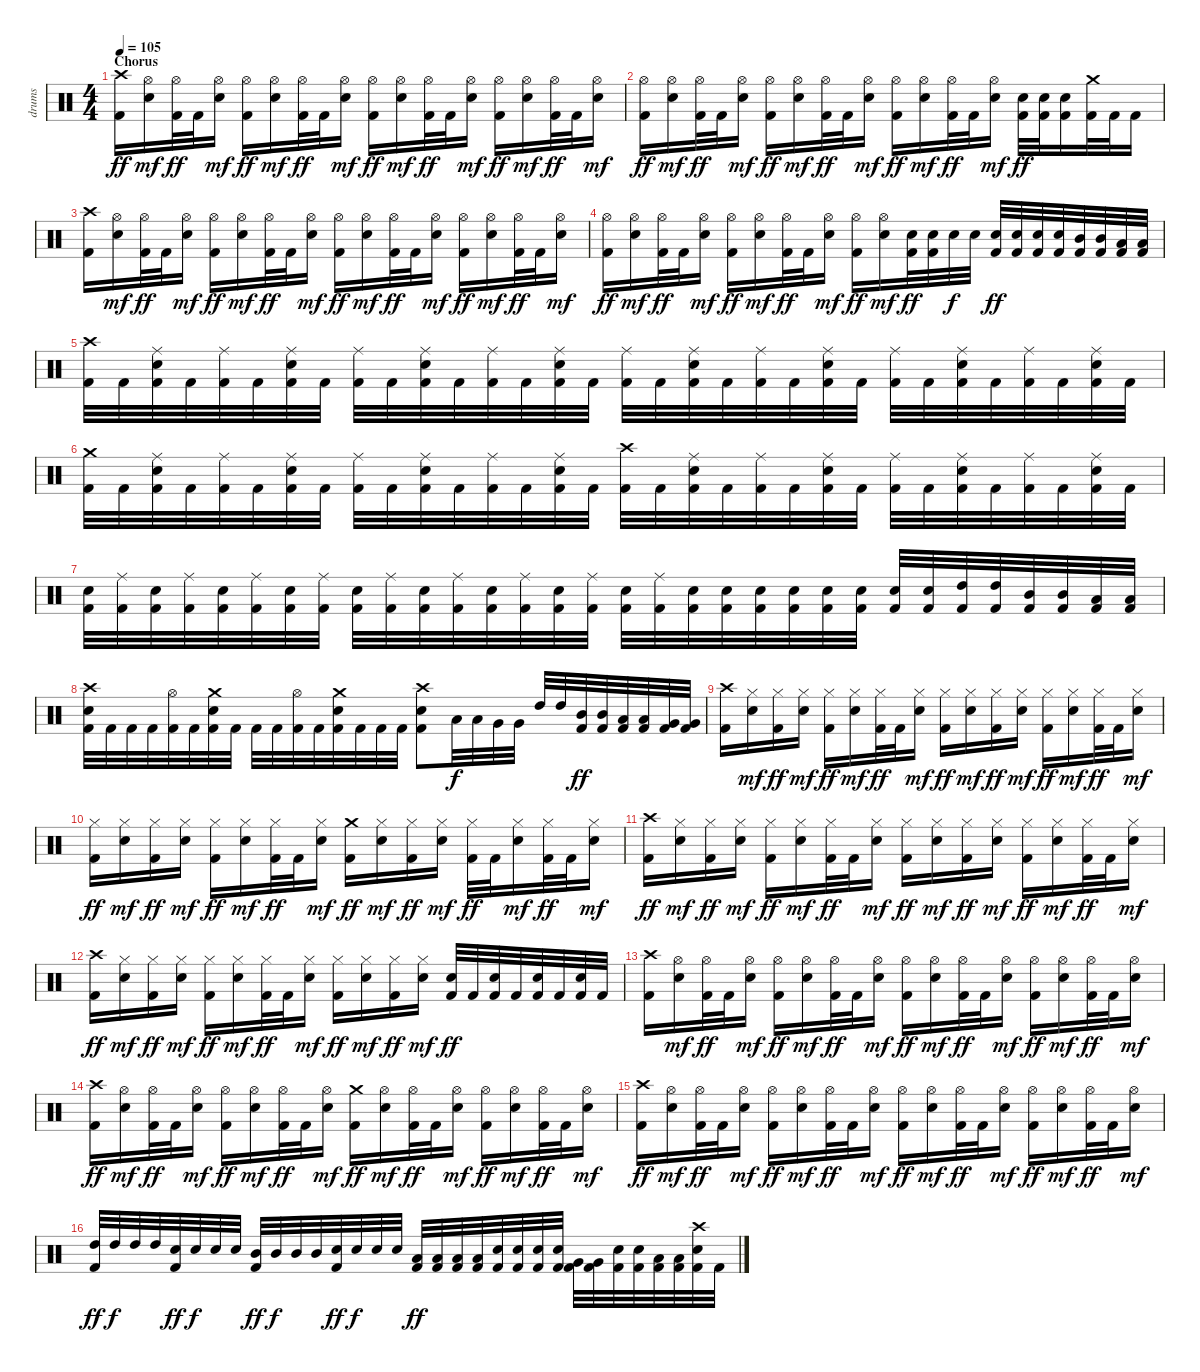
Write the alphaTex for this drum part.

\track ("drums" "drums") {instrument percussion}
\staff {score}
\articulation defaults
\ts (4 4)
\section ("" "Chorus")
\tempo 105
\clef neutral
\ks c
("Crash high (hit)" "Kick (hit) 2").16{dy ff} ("Hi-Hat (open)" "Snare (hit) 2").16{dy mf} ("Hi-Hat (open)" "Kick (hit) 2").32{dy ff} "Kick (hit) 2".32 ("Hi-Hat (open)" "Snare (hit) 2").16{dy mf} ("Hi-Hat (open)" "Kick (hit) 2").16{dy ff} ("Hi-Hat (open)" "Snare (hit) 2").16{dy mf} ("Hi-Hat (open)" "Kick (hit) 2").32{dy ff} "Kick (hit) 2".32 ("Hi-Hat (open)" "Snare (hit) 2").16{dy mf} ("Hi-Hat (open)" "Kick (hit) 2").16{dy ff} ("Hi-Hat (open)" "Snare (hit) 2").16{dy mf} ("Hi-Hat (open)" "Kick (hit) 2").32{dy ff} "Kick (hit) 2".32 ("Hi-Hat (open)" "Snare (hit) 2").16{dy mf} ("Hi-Hat (open)" "Kick (hit) 2").16{dy ff} ("Hi-Hat (open)" "Snare (hit) 2").16{dy mf} ("Hi-Hat (open)" "Kick (hit) 2").32{dy ff} "Kick (hit) 2".32 ("Hi-Hat (open)" "Snare (hit) 2").16{dy mf} |
("Hi-Hat (open)" "Kick (hit) 2").16{dy ff} ("Hi-Hat (open)" "Snare (hit) 2").16{dy mf} ("Hi-Hat (open)" "Kick (hit) 2").32{dy ff} "Kick (hit) 2".32 ("Hi-Hat (open)" "Snare (hit) 2").16{dy mf} ("Hi-Hat (open)" "Kick (hit) 2").16{dy ff} ("Hi-Hat (open)" "Snare (hit) 2").16{dy mf} ("Hi-Hat (open)" "Kick (hit) 2").32{dy ff} "Kick (hit) 2".32 ("Hi-Hat (open)" "Snare (hit) 2").16{dy mf} ("Hi-Hat (open)" "Kick (hit) 2").16{dy ff} ("Hi-Hat (open)" "Snare (hit) 2").16{dy mf} ("Hi-Hat (open)" "Kick (hit) 2").32{dy ff} "Kick (hit) 2".32 ("Hi-Hat (open)" "Snare (hit) 2").16{dy mf} ("Snare (hit) 2" "Kick (hit) 2").32{dy ff} ("Snare (hit) 2" "Kick (hit) 2").32 ("Snare (hit) 2" "Kick (hit) 2").16 ("Crash medium (hit)" "Kick (hit) 2").32 "Kick (hit) 2".32 "Kick (hit) 2".16 |
("Crash high (hit)" "Kick (hit) 2").16 ("Hi-Hat (open)" "Snare (hit) 2").16{dy mf} ("Hi-Hat (open)" "Kick (hit) 2").32{dy ff} "Kick (hit) 2".32 ("Hi-Hat (open)" "Snare (hit) 2").16{dy mf} ("Hi-Hat (open)" "Kick (hit) 2").16{dy ff} ("Hi-Hat (open)" "Snare (hit) 2").16{dy mf} ("Hi-Hat (open)" "Kick (hit) 2").32{dy ff} "Kick (hit) 2".32 ("Hi-Hat (open)" "Snare (hit) 2").16{dy mf} ("Hi-Hat (open)" "Kick (hit) 2").16{dy ff} ("Hi-Hat (open)" "Snare (hit) 2").16{dy mf} ("Hi-Hat (open)" "Kick (hit) 2").32{dy ff} "Kick (hit) 2".32 ("Hi-Hat (open)" "Snare (hit) 2").16{dy mf} ("Hi-Hat (open)" "Kick (hit) 2").16{dy ff} ("Hi-Hat (open)" "Snare (hit) 2").16{dy mf} ("Hi-Hat (open)" "Kick (hit) 2").32{dy ff} "Kick (hit) 2".32 ("Hi-Hat (open)" "Snare (hit) 2").16{dy mf} |
("Hi-Hat (open)" "Kick (hit) 2").16{dy ff} ("Hi-Hat (open)" "Snare (hit) 2").16{dy mf} ("Hi-Hat (open)" "Kick (hit) 2").32{dy ff} "Kick (hit) 2".32 ("Hi-Hat (open)" "Snare (hit) 2").16{dy mf} ("Hi-Hat (open)" "Kick (hit) 2").16{dy ff} ("Hi-Hat (open)" "Snare (hit) 2").16{dy mf} ("Hi-Hat (open)" "Kick (hit) 2").32{dy ff} "Kick (hit) 2".32 ("Hi-Hat (open)" "Snare (hit) 2").16{dy mf} ("Hi-Hat (open)" "Kick (hit) 2").16{dy ff} ("Hi-Hat (open)" "Snare (hit) 2").16{dy mf} ("Snare (hit) 2" "Kick (hit) 2").32{dy ff} ("Snare (hit) 2" "Kick (hit) 2").32 "Snare (hit) 2".32{dy f} "Snare (hit) 2".32 ("Snare (hit) 2" "Kick (hit) 2").32{dy ff} ("Snare (hit) 2" "Kick (hit) 2").32 ("Snare (hit) 2" "Kick (hit) 2").32 ("Snare (hit) 2" "Kick (hit) 2").32 ("Mid Tom (hit)" "Kick (hit) 2").32 ("Mid Tom (hit)" "Kick (hit) 2").32 ("Low Tom (hit)" "Kick (hit) 2").32 ("Low Tom (hit)" "Kick (hit) 2").32 |
("Crash high (hit)" "Kick (hit) 2").32 "Kick (hit) 2".32 ("Ride (middle)" "Snare (hit) 2" "Kick (hit) 2").32 "Kick (hit) 2".32 ("Ride (middle)" "Kick (hit) 2").32 "Kick (hit) 2".32 ("Ride (middle)" "Snare (hit) 2" "Kick (hit) 2").32 "Kick (hit) 2".32 ("Ride (middle)" "Kick (hit) 2").32 "Kick (hit) 2".32 ("Ride (middle)" "Snare (hit) 2" "Kick (hit) 2").32 "Kick (hit) 2".32 ("Ride (middle)" "Kick (hit) 2").32 "Kick (hit) 2".32 ("Ride (middle)" "Snare (hit) 2" "Kick (hit) 2").32 "Kick (hit) 2".32 ("Ride (middle)" "Kick (hit) 2").32 "Kick (hit) 2".32 ("Ride (middle)" "Snare (hit) 2" "Kick (hit) 2").32 "Kick (hit) 2".32 ("Ride (middle)" "Kick (hit) 2").32 "Kick (hit) 2".32 ("Ride (middle)" "Snare (hit) 2" "Kick (hit) 2").32 "Kick (hit) 2".32 ("Ride (middle)" "Kick (hit) 2").32 "Kick (hit) 2".32 ("Ride (middle)" "Snare (hit) 2" "Kick (hit) 2").32 "Kick (hit) 2".32 ("Ride (middle)" "Kick (hit) 2").32 "Kick (hit) 2".32 ("Ride (middle)" "Snare (hit) 2" "Kick (hit) 2").32 "Kick (hit) 2".32 |
("Crash medium (hit)" "Kick (hit) 2").32 "Kick (hit) 2".32 ("Ride (middle)" "Snare (hit) 2" "Kick (hit) 2").32 "Kick (hit) 2".32 ("Ride (middle)" "Kick (hit) 2").32 "Kick (hit) 2".32 ("Ride (middle)" "Snare (hit) 2" "Kick (hit) 2").32 "Kick (hit) 2".32 ("Ride (middle)" "Kick (hit) 2").32 "Kick (hit) 2".32 ("Ride (middle)" "Snare (hit) 2" "Kick (hit) 2").32 "Kick (hit) 2".32 ("Ride (middle)" "Kick (hit) 2").32 "Kick (hit) 2".32 ("Ride (middle)" "Snare (hit) 2" "Kick (hit) 2").32 "Kick (hit) 2".32 ("Crash high (hit)" "Kick (hit) 2").32 "Kick (hit) 2".32 ("Ride (middle)" "Snare (hit) 2" "Kick (hit) 2").32 "Kick (hit) 2".32 ("Ride (middle)" "Kick (hit) 2").32 "Kick (hit) 2".32 ("Ride (middle)" "Snare (hit) 2" "Kick (hit) 2").32 "Kick (hit) 2".32 ("Ride (middle)" "Kick (hit) 2").32 "Kick (hit) 2".32 ("Ride (middle)" "Snare (hit) 2" "Kick (hit) 2").32 "Kick (hit) 2".32 ("Ride (middle)" "Kick (hit) 2").32 "Kick (hit) 2".32 ("Ride (middle)" "Snare (hit) 2" "Kick (hit) 2").32 "Kick (hit) 2".32 |
("Snare (hit) 2" "Kick (hit) 2").32 ("Ride (middle)" "Kick (hit) 2").32 ("Snare (hit) 2" "Kick (hit) 2").32 ("Ride (middle)" "Kick (hit) 2").32 ("Snare (hit) 2" "Kick (hit) 2").32 ("Ride (middle)" "Kick (hit) 2").32 ("Snare (hit) 2" "Kick (hit) 2").32 ("Ride (middle)" "Kick (hit) 2").32 ("Snare (hit) 2" "Kick (hit) 2").32 ("Ride (middle)" "Kick (hit) 2").32 ("Snare (hit) 2" "Kick (hit) 2").32 ("Ride (middle)" "Kick (hit) 2").32 ("Snare (hit) 2" "Kick (hit) 2").32 ("Ride (middle)" "Kick (hit) 2").32 ("Snare (hit) 2" "Kick (hit) 2").32 ("Ride (middle)" "Kick (hit) 2").32 ("Snare (hit) 2" "Kick (hit) 2").32 ("Ride (middle)" "Kick (hit) 2").32 ("Snare (hit) 2" "Kick (hit) 2").32 ("Snare (hit) 2" "Kick (hit) 2").32 ("Snare (hit) 2" "Kick (hit) 2").32 ("Snare (hit) 2" "Kick (hit) 2").32 ("Snare (hit) 2" "Kick (hit) 2").32 ("Snare (hit) 2" "Kick (hit) 2").32 ("Snare (hit) 2" "Kick (hit) 2").32 ("Snare (hit) 2" "Kick (hit) 2").32 ("High Tom (hit)" "Kick (hit) 2").32 ("High Tom (hit)" "Kick (hit) 2").32 ("Mid Tom (hit)" "Kick (hit) 2").32 ("Mid Tom (hit)" "Kick (hit) 2").32 ("Low Tom (hit)" "Kick (hit) 2").32 ("Low Tom (hit)" "Kick (hit) 2").32 |
("Crash high (hit)" "Snare (hit) 2" "Kick (hit) 2").32 "Kick (hit) 2".32 "Kick (hit) 2".32 "Kick (hit) 2".32 ("Hi-Hat (open)" "Kick (hit) 2").32 "Kick (hit) 2".32 ("Crash medium (hit)" "Snare (hit) 2" "Kick (hit) 2").32 "Kick (hit) 2".32 "Kick (hit) 2".32 "Kick (hit) 2".32 ("Hi-Hat (open)" "Kick (hit) 2").32 "Kick (hit) 2".32 ("Crash medium (hit)" "Snare (hit) 2" "Kick (hit) 2").32 "Kick (hit) 2".32 "Kick (hit) 2".32 "Kick (hit) 2".32 ("Crash high (hit)" "Snare (hit) 2" "Kick (hit) 2").8 "Low Floor Tom (hit)".32{dy f} "Low Floor Tom (hit)".32 "Very Low Tom (hit)".32 "Very Low Tom (hit)".32 "High Tom (hit)".32 "High Tom (hit)".32 ("Mid Tom (hit)" "Kick (hit) 2").32{dy ff} ("Mid Tom (hit)" "Kick (hit) 2").32 ("Low Tom (hit)" "Kick (hit) 2").32 ("Low Tom (hit)" "Kick (hit) 2").32 ("Very Low Tom (hit)" "Kick (hit) 2").32 ("Very Low Tom (hit)" "Kick (hit) 2").32 |
\section ("" "")
("Crash high (hit)" "Kick (hit) 2").16 ("Hi-Hat (closed)" "Snare (hit) 2").16{dy mf} ("Hi-Hat (closed)" "Kick (hit) 2").16{dy ff} ("Hi-Hat (closed)" "Snare (hit) 2").16{dy mf} ("Hi-Hat (closed)" "Kick (hit) 2").16{dy ff} ("Hi-Hat (closed)" "Snare (hit) 2").16{dy mf} ("Hi-Hat (closed)" "Kick (hit) 2").32{dy ff} "Kick (hit) 2".32 ("Hi-Hat (closed)" "Snare (hit) 2").16{dy mf} ("Hi-Hat (closed)" "Kick (hit) 2").16{dy ff} ("Hi-Hat (closed)" "Snare (hit) 2").16{dy mf} ("Hi-Hat (closed)" "Kick (hit) 2").16{dy ff} ("Hi-Hat (closed)" "Snare (hit) 2").16{dy mf} ("Hi-Hat (closed)" "Kick (hit) 2").16{dy ff} ("Hi-Hat (closed)" "Snare (hit) 2").16{dy mf} ("Hi-Hat (closed)" "Kick (hit) 2").32{dy ff} "Kick (hit) 2".32 ("Hi-Hat (closed)" "Snare (hit) 2").16{dy mf} |
("Hi-Hat (closed)" "Kick (hit) 2").16{dy ff} ("Hi-Hat (closed)" "Snare (hit) 2").16{dy mf} ("Hi-Hat (closed)" "Kick (hit) 2").16{dy ff} ("Hi-Hat (closed)" "Snare (hit) 2").16{dy mf} ("Hi-Hat (closed)" "Kick (hit) 2").16{dy ff} ("Hi-Hat (closed)" "Snare (hit) 2").16{dy mf} ("Hi-Hat (closed)" "Kick (hit) 2").32{dy ff} "Kick (hit) 2".32 ("Hi-Hat (closed)" "Snare (hit) 2").16{dy mf} ("Crash medium (hit)" "Kick (hit) 2").16{dy ff} ("Hi-Hat (closed)" "Snare (hit) 2").16{dy mf} ("Hi-Hat (closed)" "Kick (hit) 2").16{dy ff} ("Hi-Hat (closed)" "Snare (hit) 2").16{dy mf} ("Hi-Hat (closed)" "Kick (hit) 2").32{dy ff} "Kick (hit) 2".32 ("Hi-Hat (closed)" "Snare (hit) 2").16{dy mf} ("Hi-Hat (closed)" "Kick (hit) 2").32{dy ff} "Kick (hit) 2".32 ("Hi-Hat (closed)" "Snare (hit) 2").16{dy mf} |
("Crash high (hit)" "Kick (hit) 2").16{dy ff} ("Hi-Hat (closed)" "Snare (hit) 2").16{dy mf} ("Hi-Hat (closed)" "Kick (hit) 2").16{dy ff} ("Hi-Hat (closed)" "Snare (hit) 2").16{dy mf} ("Hi-Hat (closed)" "Kick (hit) 2").16{dy ff} ("Hi-Hat (closed)" "Snare (hit) 2").16{dy mf} ("Hi-Hat (closed)" "Kick (hit) 2").32{dy ff} "Kick (hit) 2".32 ("Hi-Hat (closed)" "Snare (hit) 2").16{dy mf} ("Hi-Hat (closed)" "Kick (hit) 2").16{dy ff} ("Hi-Hat (closed)" "Snare (hit) 2").16{dy mf} ("Hi-Hat (closed)" "Kick (hit) 2").16{dy ff} ("Hi-Hat (closed)" "Snare (hit) 2").16{dy mf} ("Hi-Hat (closed)" "Kick (hit) 2").16{dy ff} ("Hi-Hat (closed)" "Snare (hit) 2").16{dy mf} ("Hi-Hat (closed)" "Kick (hit) 2").32{dy ff} "Kick (hit) 2".32 ("Hi-Hat (closed)" "Snare (hit) 2").16{dy mf} |
("Crash high (hit)" "Kick (hit) 2").16{dy ff} ("Hi-Hat (closed)" "Snare (hit) 2").16{dy mf} ("Hi-Hat (closed)" "Kick (hit) 2").16{dy ff} ("Hi-Hat (closed)" "Snare (hit) 2").16{dy mf} ("Hi-Hat (closed)" "Kick (hit) 2").16{dy ff} ("Hi-Hat (closed)" "Snare (hit) 2").16{dy mf} ("Hi-Hat (closed)" "Kick (hit) 2").32{dy ff} "Kick (hit) 2".32 ("Hi-Hat (closed)" "Snare (hit) 2").16{dy mf} ("Hi-Hat (closed)" "Kick (hit) 2").16{dy ff} ("Hi-Hat (closed)" "Snare (hit) 2").16{dy mf} ("Hi-Hat (closed)" "Kick (hit) 2").16{dy ff} ("Hi-Hat (closed)" "Snare (hit) 2").16{dy mf} ("Snare (hit) 2" "Kick (hit) 2").32{dy ff} "Kick (hit) 2".32 ("Snare (hit) 2" "Kick (hit) 2").32 "Kick (hit) 2".32 ("Snare (hit) 2" "Kick (hit) 2").32 "Kick (hit) 2".32 ("Snare (hit) 2" "Kick (hit) 2").32 "Kick (hit) 2".32 |
("Crash high (hit)" "Kick (hit) 2").16 ("Hi-Hat (open)" "Snare (hit) 2").16{dy mf} ("Hi-Hat (open)" "Kick (hit) 2").32{dy ff} "Kick (hit) 2".32 ("Hi-Hat (open)" "Snare (hit) 2").16{dy mf} ("Hi-Hat (open)" "Kick (hit) 2").16{dy ff} ("Hi-Hat (open)" "Snare (hit) 2").16{dy mf} ("Hi-Hat (open)" "Kick (hit) 2").32{dy ff} "Kick (hit) 2".32 ("Hi-Hat (open)" "Snare (hit) 2").16{dy mf} ("Hi-Hat (open)" "Kick (hit) 2").16{dy ff} ("Hi-Hat (open)" "Snare (hit) 2").16{dy mf} ("Hi-Hat (open)" "Kick (hit) 2").32{dy ff} "Kick (hit) 2".32 ("Hi-Hat (open)" "Snare (hit) 2").16{dy mf} ("Hi-Hat (open)" "Kick (hit) 2").16{dy ff} ("Hi-Hat (open)" "Snare (hit) 2").16{dy mf} ("Hi-Hat (open)" "Kick (hit) 2").32{dy ff} "Kick (hit) 2".32 ("Hi-Hat (open)" "Snare (hit) 2").16{dy mf} |
("Crash high (hit)" "Kick (hit) 2").16{dy ff} ("Hi-Hat (open)" "Snare (hit) 2").16{dy mf} ("Hi-Hat (open)" "Kick (hit) 2").32{dy ff} "Kick (hit) 2".32 ("Hi-Hat (open)" "Snare (hit) 2").16{dy mf} ("Hi-Hat (open)" "Kick (hit) 2").16{dy ff} ("Hi-Hat (open)" "Snare (hit) 2").16{dy mf} ("Hi-Hat (open)" "Kick (hit) 2").32{dy ff} "Kick (hit) 2".32 ("Hi-Hat (open)" "Snare (hit) 2").16{dy mf} ("Crash medium (hit)" "Kick (hit) 2").16{dy ff} ("Hi-Hat (open)" "Snare (hit) 2").16{dy mf} ("Hi-Hat (open)" "Kick (hit) 2").32{dy ff} "Kick (hit) 2".32 ("Hi-Hat (open)" "Snare (hit) 2").16{dy mf} ("Hi-Hat (open)" "Kick (hit) 2").16{dy ff} ("Hi-Hat (open)" "Snare (hit) 2").16{dy mf} ("Hi-Hat (open)" "Kick (hit) 2").32{dy ff} "Kick (hit) 2".32 ("Hi-Hat (open)" "Snare (hit) 2").16{dy mf} |
("Crash high (hit)" "Kick (hit) 2").16{dy ff} ("Hi-Hat (open)" "Snare (hit) 2").16{dy mf} ("Hi-Hat (open)" "Kick (hit) 2").32{dy ff} "Kick (hit) 2".32 ("Hi-Hat (open)" "Snare (hit) 2").16{dy mf} ("Hi-Hat (open)" "Kick (hit) 2").16{dy ff} ("Hi-Hat (open)" "Snare (hit) 2").16{dy mf} ("Hi-Hat (open)" "Kick (hit) 2").32{dy ff} "Kick (hit) 2".32 ("Hi-Hat (open)" "Snare (hit) 2").16{dy mf} ("Hi-Hat (open)" "Kick (hit) 2").16{dy ff} ("Hi-Hat (open)" "Snare (hit) 2").16{dy mf} ("Hi-Hat (open)" "Kick (hit) 2").32{dy ff} "Kick (hit) 2".32 ("Hi-Hat (open)" "Snare (hit) 2").16{dy mf} ("Hi-Hat (open)" "Kick (hit) 2").16{dy ff} ("Hi-Hat (open)" "Snare (hit) 2").16{dy mf} ("Hi-Hat (open)" "Kick (hit) 2").32{dy ff} "Kick (hit) 2".32 ("Hi-Hat (open)" "Snare (hit) 2").16{dy mf} |
("High Tom (hit)" "Kick (hit) 2").32{dy ff} "High Tom (hit)".32{dy f} "High Tom (hit)".32 "High Tom (hit)".32 ("Snare (hit) 2" "Kick (hit) 2").32{dy ff} "Snare (hit) 2".32{dy f} "Snare (hit) 2".32 "Snare (hit) 2".32 ("Mid Tom (hit)" "Kick (hit) 2").32{dy ff} "Mid Tom (hit)".32{dy f} "Mid Tom (hit)".32 "Mid Tom (hit)".32 ("Snare (hit) 2" "Kick (hit) 2").32{dy ff} "Snare (hit) 2".32{dy f} "Snare (hit) 2".32 "Snare (hit) 2".32 ("Low Tom (hit)" "Kick (hit) 2").32{dy ff} ("Low Tom (hit)" "Kick (hit) 2").32 ("Low Tom (hit)" "Kick (hit) 2").32 ("Low Tom (hit)" "Kick (hit) 2").32 ("Snare (hit) 2" "Kick (hit) 2").32 ("Snare (hit) 2" "Kick (hit) 2").32 ("Snare (hit) 2" "Kick (hit) 2").32 ("Snare (hit) 2" "Kick (hit) 2").32 ("Very Low Tom (hit)" "Kick (hit) 2").32 ("Very Low Tom (hit)" "Kick (hit) 2").32 ("Snare (hit) 2" "Kick (hit) 2").32 ("Snare (hit) 2" "Kick (hit) 2").32 ("Low Floor Tom (hit)" "Kick (hit) 2").32 ("Low Floor Tom (hit)" "Kick (hit) 2").32 ("Crash high (hit)" "Snare (hit) 2" "Kick (hit) 2").32 "Kick (hit) 2".32
